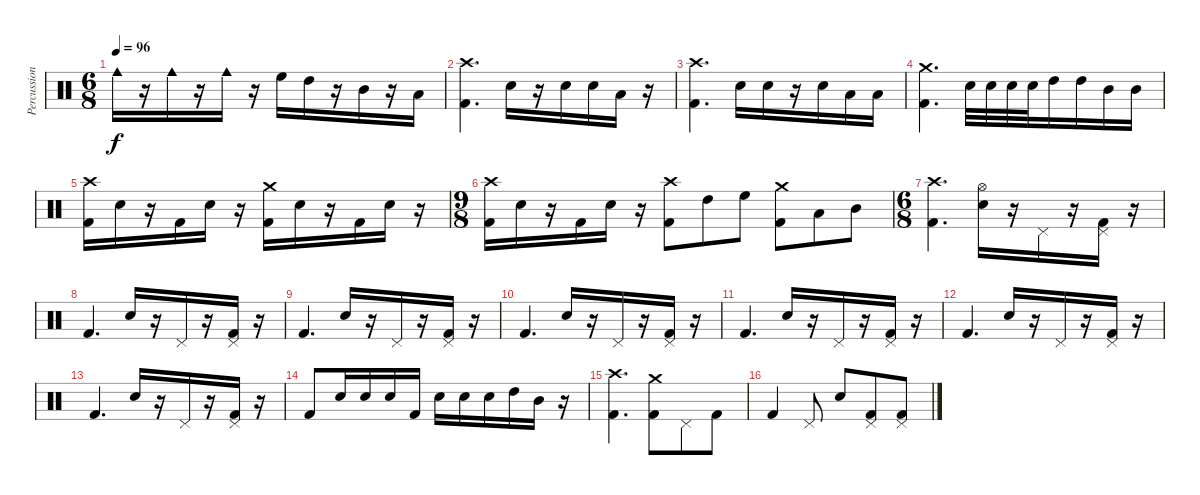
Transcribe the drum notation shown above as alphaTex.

\track ("Percussion" "Percussion") {instrument percussion}
\staff {score}
\articulation defaults
\ts (6 8)
\tempo 96
\clef neutral
\ks c "Cowbell medium (hit)".16{dy f}
r.16 "Cowbell medium (hit)".16 r.16 "Cowbell medium (hit)".16 r.16 "High Floor Tom (hit)".16 "High Tom (hit)".16 r.16 "Mid Tom (hit)".16 r.16 "Low Tom (hit)".16 |
("Kick (hit) 2" "Crash high (hit)").4{d} "Snare (hit) 2".16 r.16 "Snare (hit) 2".16 "Snare (hit) 2".16 "Low Tom (hit)".16 r.16 |
("Kick (hit) 2" "Crash high (hit)").4{d} "Snare (hit) 2".16 "Snare (hit) 2".16 r.16 "Snare (hit) 2".16 "Low Tom (hit)".16 "Low Tom (hit)".16 |
("Kick (hit) 2" "Crash medium (hit)").4{d} "Snare (hit) 2".32 "Snare (hit) 2".32 "Snare (hit) 2".32 "Snare (hit) 2".32 "High Tom (hit)".16 "High Tom (hit)".16 "Mid Tom (hit)".16 "Mid Tom (hit)".16 |
("Kick (hit) 2" "Crash high (hit)").16 "Snare (hit) 2".16 r.16 "Kick (hit) 2".16 "Snare (hit) 2".16 r.16 ("Kick (hit) 2" "Crash medium (hit)").16 "Snare (hit) 2".16 r.16 "Kick (hit) 2".16 "Snare (hit) 2".16 r.16 |
\ts (9 8)
("Kick (hit) 2" "Crash high (hit)").16 "Snare (hit) 2".16 r.16 "Kick (hit) 2".16 "Snare (hit) 2".16 r.16 ("Kick (hit) 2" "Crash high (hit)").8 "High Tom (hit)".8 "High Floor Tom (hit)".8 ("Kick (hit) 2" "Crash medium (hit)").8 "Low Tom (hit)".8 "Mid Tom (hit)".8 |
\ts (6 8)
("Kick (hit) 2" "Crash high (hit)").4{d} ("Snare (hit) 2" "Hi-Hat (open)").16 r.16 "Pedal Hi-Hat (hit)".16 r.16 ("Kick (hit) 2" "Pedal Hi-Hat (hit)").16 r.16 |
"Kick (hit) 2".4{d} "Snare (hit) 2".16 r.16 "Pedal Hi-Hat (hit)".16 r.16 ("Kick (hit) 2" "Pedal Hi-Hat (hit)").16 r.16 |
"Kick (hit) 2".4{d} "Snare (hit) 2".16 r.16 "Pedal Hi-Hat (hit)".16 r.16 ("Kick (hit) 2" "Pedal Hi-Hat (hit)").16 r.16 |
"Kick (hit) 2".4{d} "Snare (hit) 2".16 r.16 "Pedal Hi-Hat (hit)".16 r.16 ("Kick (hit) 2" "Pedal Hi-Hat (hit)").16 r.16 |
"Kick (hit) 2".4{d} "Snare (hit) 2".16 r.16 "Pedal Hi-Hat (hit)".16 r.16 ("Kick (hit) 2" "Pedal Hi-Hat (hit)").16 r.16 |
"Kick (hit) 2".4{d} "Snare (hit) 2".16 r.16 "Pedal Hi-Hat (hit)".16 r.16 ("Kick (hit) 2" "Pedal Hi-Hat (hit)").16 r.16 |
"Kick (hit) 2".4{d} "Snare (hit) 2".16 r.16 "Pedal Hi-Hat (hit)".16 r.16 ("Kick (hit) 2" "Pedal Hi-Hat (hit)").16 r.16 |
"Kick (hit) 2".8 "Snare (hit) 2".16 "Snare (hit) 2".16 "Snare (hit) 2".16 "Kick (hit) 2".16 "Snare (hit) 2".16 "Snare (hit) 2".16 "Snare (hit) 2".16 "High Tom (hit)".16 "Mid Tom (hit)".16 r.16 |
("Kick (hit) 2" "Crash high (hit)").4{d} ("Kick (hit) 2" "Crash medium (hit)").8 "Pedal Hi-Hat (hit)".8 "Kick (hit) 2".8 |
"Kick (hit) 2".4 "Pedal Hi-Hat (hit)".8 "Snare (hit) 2".8 ("Kick (hit) 2" "Pedal Hi-Hat (hit)").8 ("Kick (hit) 2" "Pedal Hi-Hat (hit)").8
